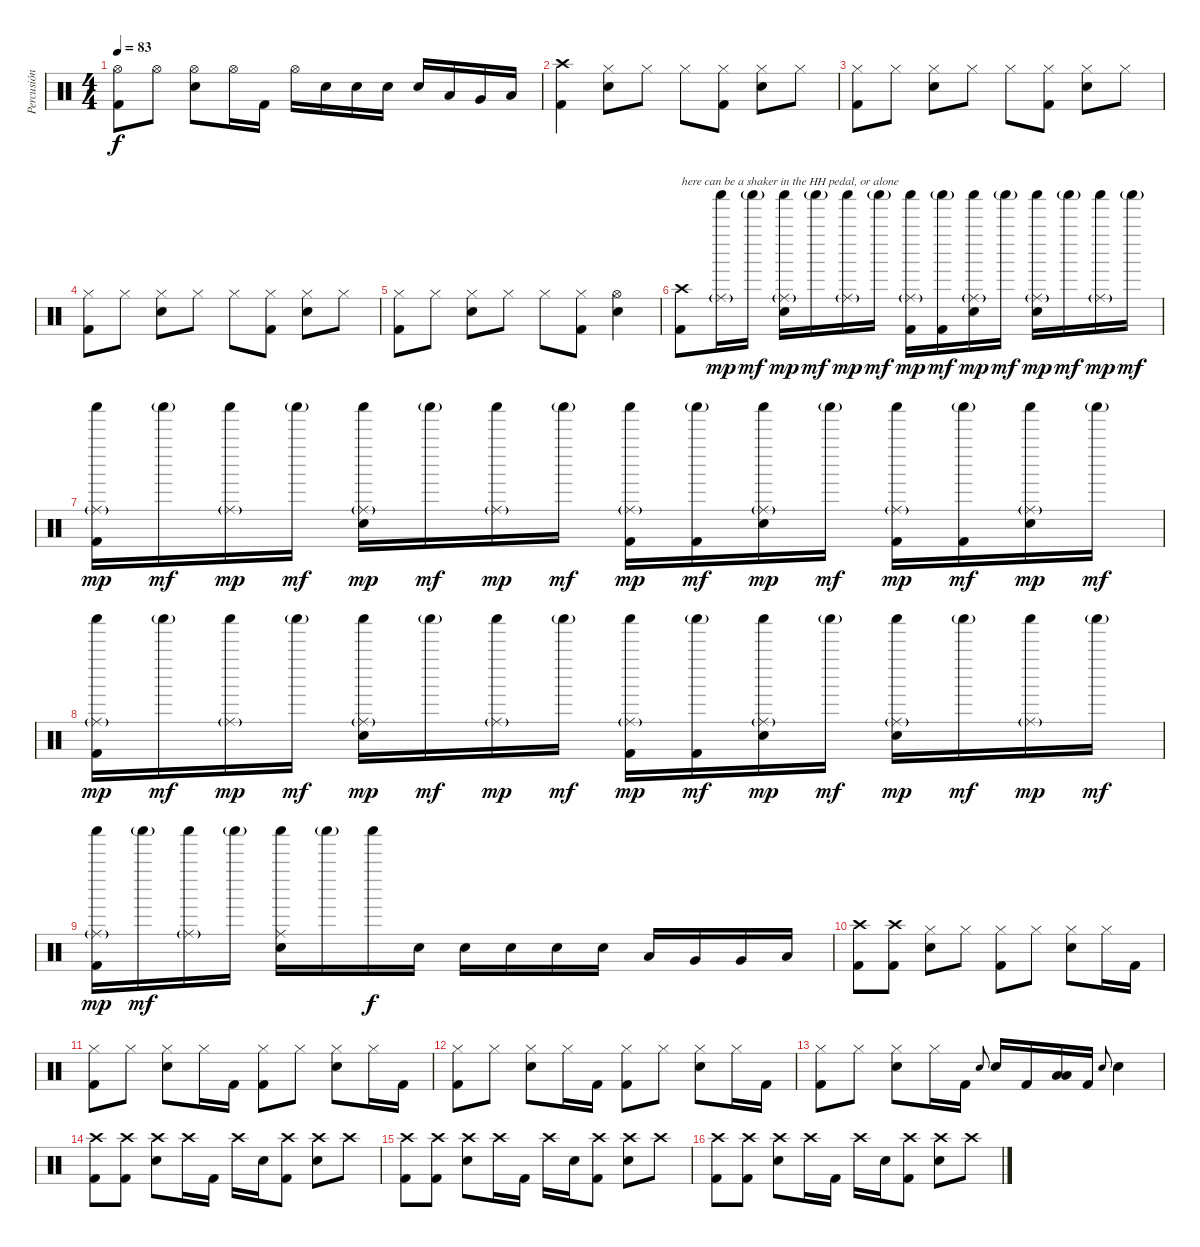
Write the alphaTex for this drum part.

\track ("Percusión" "Percusión") {instrument percussion}
\staff {score}
\articulation defaults
\ts (4 4)
\tempo 83
\clef neutral
\ks c
("Hi-Hat (open)" "Kick (hit) 2").8{dy f} "Hi-Hat (open)".8 ("Hi-Hat (open)" "Snare (hit) 2").8 "Hi-Hat (open)".16 "Kick (hit) 2".16 "Hi-Hat (open)".16 "Snare (hit) 2".16 "Snare (hit) 2".16 "Snare (hit) 2".16 "Snare (hit) 2".16 "Low Tom (hit)".16 "Very Low Tom (hit)".16 "Low Floor Tom (hit)".16 |
("Crash high (hit)" "Kick (hit) 2").4 ("Hi-Hat (closed)" "Snare (hit) 2").8 "Hi-Hat (closed)".8 "Hi-Hat (closed)".8 ("Hi-Hat (closed)" "Kick (hit) 2").8 ("Hi-Hat (closed)" "Snare (hit) 2").8 "Hi-Hat (closed)".8 |
("Hi-Hat (closed)" "Kick (hit) 2").8 "Hi-Hat (closed)".8 ("Hi-Hat (closed)" "Snare (hit) 2").8 "Hi-Hat (closed)".8 "Hi-Hat (closed)".8 ("Hi-Hat (closed)" "Kick (hit) 2").8 ("Hi-Hat (closed)" "Snare (hit) 2").8 "Hi-Hat (closed)".8 |
("Hi-Hat (closed)" "Kick (hit) 2").8 "Hi-Hat (closed)".8 ("Hi-Hat (closed)" "Snare (hit) 2").8 "Hi-Hat (closed)".8 "Hi-Hat (closed)".8 ("Hi-Hat (closed)" "Kick (hit) 2").8 ("Hi-Hat (closed)" "Snare (hit) 2").8 "Hi-Hat (closed)".8 |
("Hi-Hat (closed)" "Kick (hit) 2").8 "Hi-Hat (closed)".8 ("Hi-Hat (closed)" "Snare (hit) 2").8 "Hi-Hat (closed)".8 "Hi-Hat (closed)".8 ("Hi-Hat (closed)" "Kick (hit) 2").8 ("Hi-Hat (open)" "Snare (hit) 2").4 |
("Crash high (hit)" "Kick (hit) 2").8{txt "here can be a shaker in the HH pedal, or alone"} ("Ride (middle)"{g} "Shaker (hit)").16{dy mp} "Shaker (hit)"{g}.16{dy mf} ("Ride (middle)"{g} "Shaker (hit)" "Snare (hit) 2").16{dy mp} "Shaker (hit)"{g}.16{dy mf} ("Ride (middle)"{g} "Shaker (hit)").16{dy mp} "Shaker (hit)"{g}.16{dy mf} ("Ride (middle)"{g} "Shaker (hit)" "Kick (hit) 2").16{dy mp} ("Shaker (hit)"{g} "Kick (hit) 2").16{dy mf} ("Ride (middle)"{g} "Shaker (hit)" "Snare (hit) 2").16{dy mp} "Shaker (hit)"{g}.16{dy mf} ("Ride (middle)"{g} "Shaker (hit)" "Snare (hit) 2").16{dy mp} "Shaker (hit)"{g}.16{dy mf} ("Ride (middle)"{g} "Shaker (hit)").16{dy mp} "Shaker (hit)"{g}.16{dy mf} |
("Ride (middle)"{g} "Shaker (hit)" "Kick (hit) 2").16{dy mp} "Shaker (hit)"{g}.16{dy mf} ("Ride (middle)"{g} "Shaker (hit)").16{dy mp} "Shaker (hit)"{g}.16{dy mf} ("Ride (middle)"{g} "Shaker (hit)" "Snare (hit) 2").16{dy mp} "Shaker (hit)"{g}.16{dy mf} ("Ride (middle)"{g} "Shaker (hit)").16{dy mp} "Shaker (hit)"{g}.16{dy mf} ("Ride (middle)"{g} "Shaker (hit)" "Kick (hit) 2").16{dy mp} ("Shaker (hit)"{g} "Kick (hit) 2").16{dy mf} ("Ride (middle)"{g} "Shaker (hit)" "Snare (hit) 2").16{dy mp} "Shaker (hit)"{g}.16{dy mf} ("Ride (middle)"{g} "Shaker (hit)" "Kick (hit) 2").16{dy mp} ("Shaker (hit)"{g} "Kick (hit) 2").16{dy mf} ("Ride (middle)"{g} "Shaker (hit)" "Snare (hit) 2").16{dy mp} "Shaker (hit)"{g}.16{dy mf} |
("Ride (middle)"{g} "Shaker (hit)" "Kick (hit) 2").16{dy mp} "Shaker (hit)"{g}.16{dy mf} ("Ride (middle)"{g} "Shaker (hit)").16{dy mp} "Shaker (hit)"{g}.16{dy mf} ("Ride (middle)"{g} "Shaker (hit)" "Snare (hit) 2").16{dy mp} "Shaker (hit)"{g}.16{dy mf} ("Ride (middle)"{g} "Shaker (hit)").16{dy mp} "Shaker (hit)"{g}.16{dy mf} ("Ride (middle)"{g} "Shaker (hit)" "Kick (hit) 2").16{dy mp} ("Shaker (hit)"{g} "Kick (hit) 2").16{dy mf} ("Ride (middle)"{g} "Shaker (hit)" "Snare (hit) 2").16{dy mp} "Shaker (hit)"{g}.16{dy mf} ("Ride (middle)"{g} "Shaker (hit)" "Snare (hit) 2").16{dy mp} "Shaker (hit)"{g}.16{dy mf} ("Ride (middle)"{g} "Shaker (hit)").16{dy mp} "Shaker (hit)"{g}.16{dy mf} |
("Ride (middle)"{g} "Shaker (hit)" "Kick (hit) 2").16{dy mp} "Shaker (hit)"{g}.16{dy mf} ("Ride (middle)"{g} "Shaker (hit)").16 "Shaker (hit)"{g}.16 ("Ride (middle)" "Shaker (hit)" "Snare (hit) 2").16 "Shaker (hit)"{g}.16 "Shaker (hit)".16{dy f} "Snare (hit) 2".16 "Snare (hit) 2".16 "Snare (hit) 2".16 "Snare (hit) 2".16 "Snare (hit) 2".16 "Low Tom (hit)".16 "Very Low Tom (hit)".16 "Very Low Tom (hit)".16 "Low Floor Tom (hit)".16 |
("Crash high (hit)" "Kick (hit) 2").8 ("Crash high (hit)" "Kick (hit) 2").8 ("Hi-Hat (closed)" "Snare (hit) 2").8 "Hi-Hat (closed)".8 ("Hi-Hat (closed)" "Kick (hit) 2").8 "Hi-Hat (closed)".8 ("Hi-Hat (closed)" "Snare (hit) 2").8 "Hi-Hat (closed)".16 "Kick (hit) 2".16 |
("Hi-Hat (closed)" "Kick (hit) 2").8 "Hi-Hat (closed)".8 ("Hi-Hat (closed)" "Snare (hit) 2").8 "Hi-Hat (closed)".16 "Kick (hit) 2".16 ("Hi-Hat (closed)" "Kick (hit) 2").8 "Hi-Hat (closed)".8 ("Hi-Hat (closed)" "Snare (hit) 2").8 "Hi-Hat (closed)".16 "Kick (hit) 2".16 |
("Hi-Hat (closed)" "Kick (hit) 2").8 "Hi-Hat (closed)".8 ("Hi-Hat (closed)" "Snare (hit) 2").8 "Hi-Hat (closed)".16 "Kick (hit) 2".16 ("Hi-Hat (closed)" "Kick (hit) 2").8 "Hi-Hat (closed)".8 ("Hi-Hat (closed)" "Snare (hit) 2").8 "Hi-Hat (closed)".16 "Kick (hit) 2".16 |
("Hi-Hat (closed)" "Kick (hit) 2").8 "Hi-Hat (closed)".8 ("Hi-Hat (closed)" "Snare (hit) 2").8 "Hi-Hat (closed)".16 "Kick (hit) 2".16 "Snare (hit) 2".8{gr onbeat} "Snare (hit) 2".16 "Kick (hit) 2".16 ("Low Tom (hit)" "Low Floor Tom (hit)").16 "Kick (hit) 2".16 "Snare (hit) 2".8{gr onbeat} "Snare (hit) 2".4 |
("Crash high (hit)" "Kick (hit) 2").8 ("Crash high (hit)" "Kick (hit) 2").8 ("Crash high (hit)" "Snare (hit) 2").8 "Crash high (hit)".16 "Kick (hit) 2".16 "Crash high (hit)".16 "Snare (hit) 2".16 ("Crash high (hit)" "Kick (hit) 2").8 ("Crash high (hit)" "Snare (hit) 2").8 "Crash high (hit)".8 |
("Crash high (hit)" "Kick (hit) 2").8 ("Crash high (hit)" "Kick (hit) 2").8 ("Crash high (hit)" "Snare (hit) 2").8 "Crash high (hit)".16 "Kick (hit) 2".16 "Crash high (hit)".16 "Snare (hit) 2".16 ("Crash high (hit)" "Kick (hit) 2").8 ("Crash high (hit)" "Snare (hit) 2").8 "Crash high (hit)".8 |
("Crash high (hit)" "Kick (hit) 2").8 ("Crash high (hit)" "Kick (hit) 2").8 ("Crash high (hit)" "Snare (hit) 2").8 "Crash high (hit)".16 "Kick (hit) 2".16 "Crash high (hit)".16 "Snare (hit) 2".16 ("Crash high (hit)" "Kick (hit) 2").8 ("Crash high (hit)" "Snare (hit) 2").8 "Crash high (hit)".8
